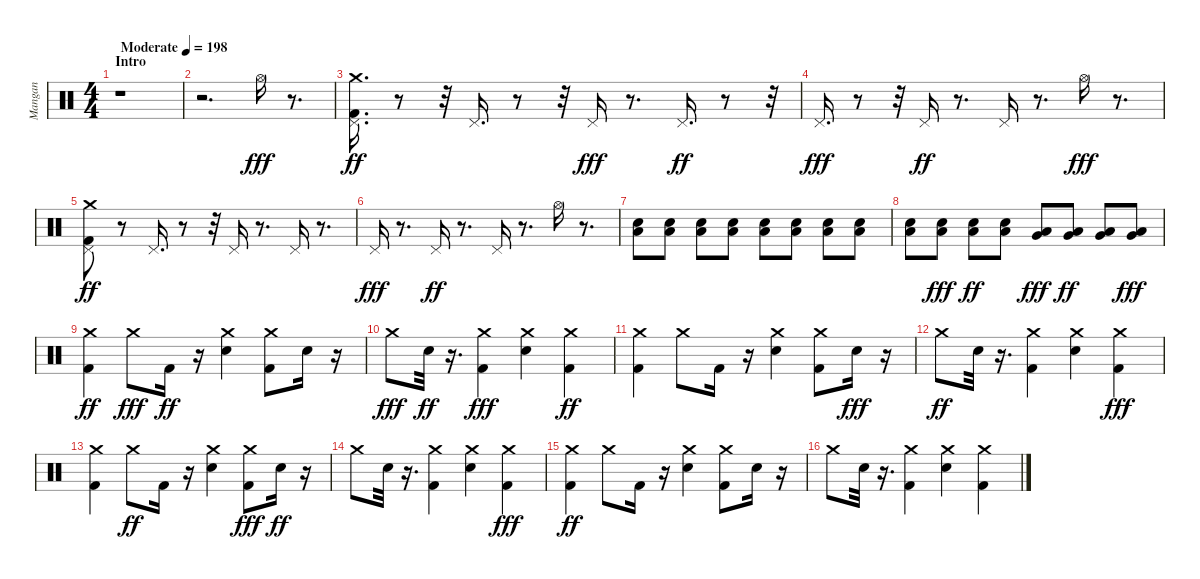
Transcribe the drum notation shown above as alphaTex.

\track ("Mangan" "Mangan") {instrument percussion}
\staff {score}
\articulation defaults
\ts (4 4)
\section ("" "Intro")
\tempo (198 "Moderate")
\clef neutral
\ks c
r.1{dy fff} |
r.2{d} "Hi-Hat (open)".16 r.8{d} |
("Kick (hit) 2" "Pedal Hi-Hat (hit)" "Crash medium (hit)").16{d dy ff} r.8 r.32 "Pedal Hi-Hat (hit)".16{d} r.8 r.32 "Pedal Hi-Hat (hit)".16{dy fff} r.8{d} "Pedal Hi-Hat (hit)".16{d dy ff} r.8 r.32 |
"Pedal Hi-Hat (hit)".16{d dy fff} r.8 r.32 "Pedal Hi-Hat (hit)".16{dy ff} r.8{d} "Pedal Hi-Hat (hit)".16 r.8{d} "Hi-Hat (open)".16{dy fff} r.8{d} |
("Kick (hit) 2" "Pedal Hi-Hat (hit)" "Crash medium (hit)").8{dy ff} r.8 "Pedal Hi-Hat (hit)".16{d} r.8 r.32 "Pedal Hi-Hat (hit)".16 r.8{d} "Pedal Hi-Hat (hit)".16 r.8{d} |
"Pedal Hi-Hat (hit)".16{dy fff} r.8{d} "Pedal Hi-Hat (hit)".16{dy ff} r.8{d} "Pedal Hi-Hat (hit)".16 r.8{d} "Hi-Hat (open)".16 r.8{d} |
("Snare (hit) 2" "Low Floor Tom (hit)").8 ("Snare (hit) 2" "Low Floor Tom (hit)").8 ("Snare (hit) 2" "Low Floor Tom (hit)").8 ("Snare (hit) 2" "Low Floor Tom (hit)").8 ("Snare (hit) 2" "Low Floor Tom (hit)").8 ("Snare (hit) 2" "Low Floor Tom (hit)").8 ("Snare (hit) 2" "Low Floor Tom (hit)").8 ("Snare (hit) 2" "Low Floor Tom (hit)").8 |
("Snare (hit) 2" "Low Floor Tom (hit)").8 ("Snare (hit) 2" "Low Floor Tom (hit)").8{dy fff} ("Snare (hit) 2" "Low Floor Tom (hit)").8{dy ff} ("Snare (hit) 2" "Low Floor Tom (hit)").8 ("Low Floor Tom (hit)" "Very Low Tom (hit)").8{dy fff} ("Low Floor Tom (hit)" "Very Low Tom (hit)").8{dy ff} ("Low Floor Tom (hit)" "Very Low Tom (hit)").8 ("Low Floor Tom (hit)" "Very Low Tom (hit)").8{dy fff} |
("Kick (hit) 2" "Crash medium (hit)").4{dy ff} "Crash medium (hit)".8{dy fff} "Kick (hit) 2".16{dy ff} r.16 ("Snare (hit) 2" "Crash medium (hit)").4 ("Kick (hit) 2" "Crash medium (hit)").8 "Snare (hit) 2".16 r.16 |
"Crash medium (hit)".8{dy fff} "Snare (hit) 2".32{dy ff} r.16{d} ("Kick (hit) 2" "Crash medium (hit)").4{dy fff} ("Snare (hit) 2" "Crash medium (hit)").4 ("Kick (hit) 2" "Crash medium (hit)").4{dy ff} |
("Kick (hit) 2" "Crash medium (hit)").4 "Crash medium (hit)".8 "Kick (hit) 2".16 r.16 ("Snare (hit) 2" "Crash medium (hit)").4 ("Kick (hit) 2" "Crash medium (hit)").8 "Snare (hit) 2".16{dy fff} r.16 |
"Crash medium (hit)".8{dy ff} "Snare (hit) 2".32 r.16{d} ("Kick (hit) 2" "Crash medium (hit)").4 ("Snare (hit) 2" "Crash medium (hit)").4 ("Kick (hit) 2" "Crash medium (hit)").4{dy fff} |
("Kick (hit) 2" "Crash medium (hit)").4 "Crash medium (hit)".8{dy ff} "Kick (hit) 2".16 r.16 ("Snare (hit) 2" "Crash medium (hit)").4 ("Kick (hit) 2" "Crash medium (hit)").8{dy fff} "Snare (hit) 2".16{dy ff} r.16 |
"Crash medium (hit)".8 "Snare (hit) 2".32 r.16{d} ("Kick (hit) 2" "Crash medium (hit)").4 ("Snare (hit) 2" "Crash medium (hit)").4 ("Kick (hit) 2" "Crash medium (hit)").4{dy fff} |
("Kick (hit) 2" "Crash medium (hit)").4{dy ff} "Crash medium (hit)".8 "Kick (hit) 2".16 r.16 ("Snare (hit) 2" "Crash medium (hit)").4 ("Kick (hit) 2" "Crash medium (hit)").8 "Snare (hit) 2".16 r.16 |
"Crash medium (hit)".8 "Snare (hit) 2".32 r.16{d} ("Kick (hit) 2" "Crash medium (hit)").4 ("Snare (hit) 2" "Crash medium (hit)").4 ("Kick (hit) 2" "Crash medium (hit)").4
